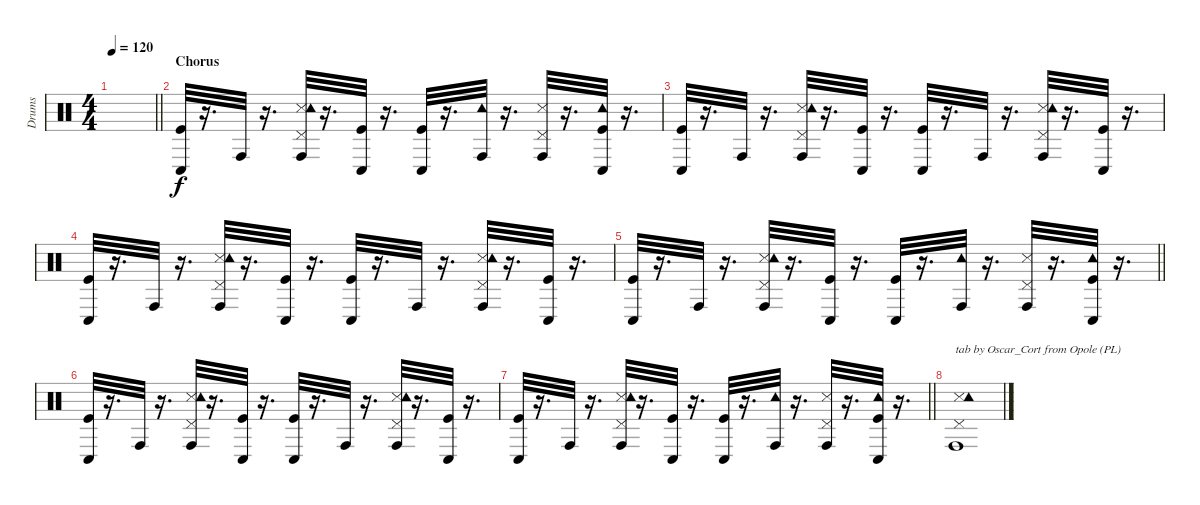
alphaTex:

\track ("Drums" "Drums") {instrument percussion}
\staff {score}
\articulation defaults
\ts (4 4)
\tempo 120
\clef neutral
\barLineRight lightlight
\ks c
|
\section ("" "Chorus")
("Kick (hit)" "Conga low (hit)").32 r.16{d} "Conga high (hit)".32 r.16{d} ("Snare (side stick) 3" "Pedal Hi-Hat (hit)" "Tambourine (hit)" "Conga high (hit)").32 r.16{d} ("Kick (hit)" "Conga low (hit)").32 r.16{d} ("Kick (hit)" "Conga low (hit)").32 r.16{d} ("Tambourine (hit)" "Conga high (hit)").32 r.16{d} ("Snare (side stick) 3" "Pedal Hi-Hat (hit)" "Conga high (hit)").32 r.16{d} ("Kick (hit)" "Tambourine (hit)" "Conga low (hit)").32 r.16{d} |
("Kick (hit)" "Conga low (hit)").32 r.16{d} "Conga high (hit)".32 r.16{d} ("Snare (side stick) 3" "Pedal Hi-Hat (hit)" "Tambourine (hit)" "Conga high (hit)").32 r.16{d} ("Kick (hit)" "Conga low (hit)").32 r.16{d} ("Kick (hit)" "Conga low (hit)").32 r.16{d} "Conga high (hit)".32 r.16{d} ("Snare (side stick) 3" "Pedal Hi-Hat (hit)" "Tambourine (hit)" "Conga high (hit)").32 r.16{d} ("Kick (hit)" "Conga low (hit)").32 r.16{d} |
("Kick (hit)" "Conga low (hit)").32 r.16{d} "Conga high (hit)".32 r.16{d} ("Snare (side stick) 3" "Pedal Hi-Hat (hit)" "Tambourine (hit)" "Conga high (hit)").32 r.16{d} ("Kick (hit)" "Conga low (hit)").32 r.16{d} ("Kick (hit)" "Conga low (hit)").32 r.16{d} "Conga high (hit)".32 r.16{d} ("Snare (side stick) 3" "Pedal Hi-Hat (hit)" "Tambourine (hit)" "Conga high (hit)").32 r.16{d} ("Kick (hit)" "Conga low (hit)").32 r.16{d} |
\barLineRight lightlight
("Kick (hit)" "Conga low (hit)").32 r.16{d} "Conga high (hit)".32 r.16{d} ("Snare (side stick) 3" "Pedal Hi-Hat (hit)" "Tambourine (hit)" "Conga high (hit)").32 r.16{d} ("Kick (hit)" "Conga low (hit)").32 r.16{d} ("Kick (hit)" "Conga low (hit)").32 r.16{d} ("Tambourine (hit)" "Conga high (hit)").32 r.16{d} ("Snare (side stick) 3" "Pedal Hi-Hat (hit)" "Conga high (hit)").32 r.16{d} ("Kick (hit)" "Tambourine (hit)" "Conga low (hit)").32 r.16{d} |
("Kick (hit)" "Conga low (hit)").32 r.16{d} "Conga high (hit)".32 r.16{d} ("Snare (side stick) 3" "Pedal Hi-Hat (hit)" "Tambourine (hit)" "Conga high (hit)").32 r.16{d} ("Kick (hit)" "Conga low (hit)").32 r.16{d} ("Kick (hit)" "Conga low (hit)").32 r.16{d} "Conga high (hit)".32 r.16{d} ("Snare (side stick) 3" "Pedal Hi-Hat (hit)" "Tambourine (hit)" "Conga high (hit)").32 r.16{d} ("Kick (hit)" "Conga low (hit)").32 r.16{d} |
\barLineRight lightlight
("Kick (hit)" "Conga low (hit)").32 r.16{d} "Conga high (hit)".32 r.16{d} ("Snare (side stick) 3" "Pedal Hi-Hat (hit)" "Tambourine (hit)" "Conga high (hit)").32 r.16{d} ("Kick (hit)" "Conga low (hit)").32 r.16{d} ("Kick (hit)" "Conga low (hit)").32 r.16{d} ("Tambourine (hit)" "Conga high (hit)").32 r.16{d} ("Snare (side stick) 3" "Pedal Hi-Hat (hit)" "Conga high (hit)").32 r.16{d} ("Kick (hit)" "Tambourine (hit)" "Conga low (hit)").32 r.16{d} |
("Snare (side stick) 3" "Pedal Hi-Hat (hit)" "Tambourine (hit)" "Conga high (hit)").1{txt "tab by Oscar_Cort from Opole (PL)"}
